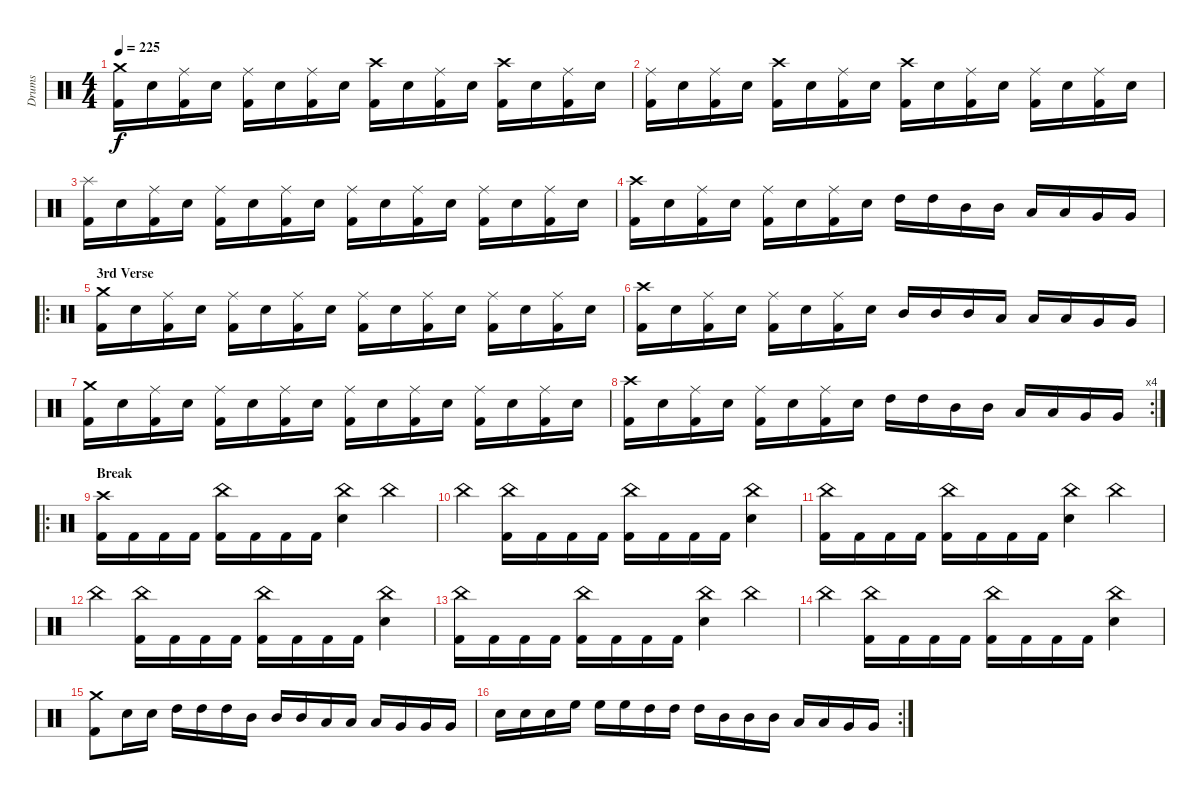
\track ("Drums" "Drums") {instrument percussion}
\staff {score}
\articulation defaults
\ts (4 4)
\tempo 225
\clef neutral
\ks c
("Kick (hit) 2" "Crash medium (hit)").16{dy f} "Electric Snare (hit)".16 ("Kick (hit) 2" "Ride (middle)").16 "Electric Snare (hit)".16 ("Kick (hit) 2" "Ride (middle)").16 "Electric Snare (hit)".16 ("Kick (hit) 2" "Ride (middle)").16 "Electric Snare (hit)".16 ("Kick (hit) 2" "Crash high (hit)").16 "Electric Snare (hit)".16 ("Kick (hit) 2" "Ride (middle)").16 "Electric Snare (hit)".16 ("Kick (hit) 2" "Crash high (hit)").16 "Electric Snare (hit)".16 ("Kick (hit) 2" "Ride (middle)").16 "Electric Snare (hit)".16 |
("Kick (hit) 2" "Ride (middle)").16 "Electric Snare (hit)".16 ("Kick (hit) 2" "Ride (middle)").16 "Electric Snare (hit)".16 ("Kick (hit) 2" "Crash high (hit)").16 "Electric Snare (hit)".16 ("Kick (hit) 2" "Ride (middle)").16 "Electric Snare (hit)".16 ("Kick (hit) 2" "Crash high (hit)").16 "Electric Snare (hit)".16 ("Kick (hit) 2" "Ride (middle)").16 "Electric Snare (hit)".16 ("Kick (hit) 2" "Ride (middle)").16 "Electric Snare (hit)".16 ("Kick (hit) 2" "Ride (middle)").16 "Electric Snare (hit)".16 |
("Kick (hit) 2" "Splash (hit)").16 "Electric Snare (hit)".16 ("Kick (hit) 2" "Ride (middle)").16 "Electric Snare (hit)".16 ("Kick (hit) 2" "Ride (middle)").16 "Electric Snare (hit)".16 ("Kick (hit) 2" "Ride (middle)").16 "Electric Snare (hit)".16 ("Kick (hit) 2" "Ride (middle)").16 "Electric Snare (hit)".16 ("Kick (hit) 2" "Ride (middle)").16 "Electric Snare (hit)".16 ("Kick (hit) 2" "Ride (middle)").16 "Electric Snare (hit)".16 ("Kick (hit) 2" "Ride (middle)").16 "Electric Snare (hit)".16 |
("Kick (hit) 2" "Crash high (hit)").16 "Electric Snare (hit)".16 ("Kick (hit) 2" "Ride (middle)").16 "Electric Snare (hit)".16 ("Kick (hit) 2" "Ride (middle)").16 "Electric Snare (hit)".16 ("Kick (hit) 2" "Ride (middle)").16 "Electric Snare (hit)".16 "High Tom (hit)".16 "High Tom (hit)".16 "Mid Tom (hit)".16 "Mid Tom (hit)".16 "Low Tom (hit)".16 "Low Tom (hit)".16 "Very Low Tom (hit)".16 "Very Low Tom (hit)".16 |
\ro
\section ("" "3rd Verse")
("Kick (hit) 2" "Crash medium (hit)").16 "Electric Snare (hit)".16 ("Kick (hit) 2" "Ride (middle)").16 "Electric Snare (hit)".16 ("Kick (hit) 2" "Ride (middle)").16 "Electric Snare (hit)".16 ("Kick (hit) 2" "Ride (middle)").16 "Electric Snare (hit)".16 ("Kick (hit) 2" "Ride (middle)").16 "Electric Snare (hit)".16 ("Kick (hit) 2" "Ride (middle)").16 "Electric Snare (hit)".16 ("Kick (hit) 2" "Ride (middle)").16 "Electric Snare (hit)".16 ("Kick (hit) 2" "Ride (middle)").16 "Electric Snare (hit)".16 |
("Kick (hit) 2" "Crash high (hit)").16 "Electric Snare (hit)".16 ("Kick (hit) 2" "Ride (middle)").16 "Electric Snare (hit)".16 ("Kick (hit) 2" "Ride (middle)").16 "Electric Snare (hit)".16 ("Kick (hit) 2" "Ride (middle)").16 "Electric Snare (hit)".16 "Mid Tom (hit)".16 "Mid Tom (hit)".16 "Mid Tom (hit)".16 "Low Tom (hit)".16 "Low Tom (hit)".16 "Low Tom (hit)".16 "Very Low Tom (hit)".16 "Very Low Tom (hit)".16 |
("Kick (hit) 2" "Crash medium (hit)").16 "Electric Snare (hit)".16 ("Kick (hit) 2" "Ride (middle)").16 "Electric Snare (hit)".16 ("Kick (hit) 2" "Ride (middle)").16 "Electric Snare (hit)".16 ("Kick (hit) 2" "Ride (middle)").16 "Electric Snare (hit)".16 ("Kick (hit) 2" "Ride (middle)").16 "Electric Snare (hit)".16 ("Kick (hit) 2" "Ride (middle)").16 "Electric Snare (hit)".16 ("Kick (hit) 2" "Ride (middle)").16 "Electric Snare (hit)".16 ("Kick (hit) 2" "Ride (middle)").16 "Electric Snare (hit)".16 |
\rc 4
("Kick (hit) 2" "Crash high (hit)").16 "Electric Snare (hit)".16 ("Kick (hit) 2" "Ride (middle)").16 "Electric Snare (hit)".16 ("Kick (hit) 2" "Ride (middle)").16 "Electric Snare (hit)".16 ("Kick (hit) 2" "Ride (middle)").16 "Electric Snare (hit)".16 "High Tom (hit)".16 "High Tom (hit)".16 "Mid Tom (hit)".16 "Mid Tom (hit)".16 "Low Tom (hit)".16 "Low Tom (hit)".16 "Very Low Tom (hit)".16 "Very Low Tom (hit)".16 |
\ro
\section ("" "Break")
("Kick (hit) 2" "Crash high (hit)").16 "Kick (hit) 2".16 "Kick (hit) 2".16 "Kick (hit) 2".16 ("Kick (hit) 2" "China (hit)").16 "Kick (hit) 2".16 "Kick (hit) 2".16 "Kick (hit) 2".16 ("Electric Snare (hit)" "China (hit)").4 "China (hit)".4 |
"China (hit)".4 ("Kick (hit) 2" "China (hit)").16 "Kick (hit) 2".16 "Kick (hit) 2".16 "Kick (hit) 2".16 ("Kick (hit) 2" "China (hit)").16 "Kick (hit) 2".16 "Kick (hit) 2".16 "Kick (hit) 2".16 ("Electric Snare (hit)" "China (hit)").4 |
("Kick (hit) 2" "China (hit)").16 "Kick (hit) 2".16 "Kick (hit) 2".16 "Kick (hit) 2".16 ("Kick (hit) 2" "China (hit)").16 "Kick (hit) 2".16 "Kick (hit) 2".16 "Kick (hit) 2".16 ("Electric Snare (hit)" "China (hit)").4 "China (hit)".4 |
"China (hit)".4 ("Kick (hit) 2" "China (hit)").16 "Kick (hit) 2".16 "Kick (hit) 2".16 "Kick (hit) 2".16 ("Kick (hit) 2" "China (hit)").16 "Kick (hit) 2".16 "Kick (hit) 2".16 "Kick (hit) 2".16 ("Electric Snare (hit)" "China (hit)").4 |
("Kick (hit) 2" "China (hit)").16 "Kick (hit) 2".16 "Kick (hit) 2".16 "Kick (hit) 2".16 ("Kick (hit) 2" "China (hit)").16 "Kick (hit) 2".16 "Kick (hit) 2".16 "Kick (hit) 2".16 ("Electric Snare (hit)" "China (hit)").4 "China (hit)".4 |
"China (hit)".4 ("Kick (hit) 2" "China (hit)").16 "Kick (hit) 2".16 "Kick (hit) 2".16 "Kick (hit) 2".16 ("Kick (hit) 2" "China (hit)").16 "Kick (hit) 2".16 "Kick (hit) 2".16 "Kick (hit) 2".16 ("Electric Snare (hit)" "China (hit)").4 |
("Kick (hit) 2" "Crash medium (hit)").8 "Electric Snare (hit)".16 "Electric Snare (hit)".16 "High Tom (hit)".16 "High Tom (hit)".16 "High Tom (hit)".16 "Mid Tom (hit)".16 "Mid Tom (hit)".16 "Mid Tom (hit)".16 "Low Tom (hit)".16 "Low Tom (hit)".16 "Low Tom (hit)".16 "Very Low Tom (hit)".16 "Very Low Tom (hit)".16 "Very Low Tom (hit)".16 |
\rc 2 "Electric Snare (hit)".16 "Electric Snare (hit)".16 "Electric Snare (hit)".16 "High Floor Tom (hit)".16 "High Floor Tom (hit)".16 "High Floor Tom (hit)".16 "High Tom (hit)".16 "High Tom (hit)".16 "High Tom (hit)".16 "Mid Tom (hit)".16 "Mid Tom (hit)".16 "Mid Tom (hit)".16 "Low Tom (hit)".16 "Low Tom (hit)".16 "Very Low Tom (hit)".16 "Very Low Tom (hit)".16
